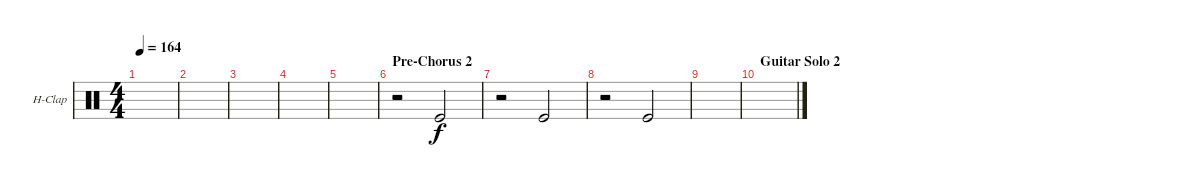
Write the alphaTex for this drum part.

\defaultSystemsLayout 4
\bracketExtendMode groupsimilarinstruments
\firstSystemTrackNameOrientation horizontal
\otherSystemsTrackNameOrientation horizontal
\track ("Hand Clap" "H-Clap") {instrument percussion}
\staff {score}
\articulation defaults
\ts (4 4)
\tempo 164
\clef neutral
\ks c
|
|
|
|
|
\section ("" "Pre-Chorus 2")
r.2 "Kick (hit)".2 |
r.2 "Kick (hit)".2 |
r.2 "Kick (hit)".2 |
|
\section ("" "Guitar Solo 2")
